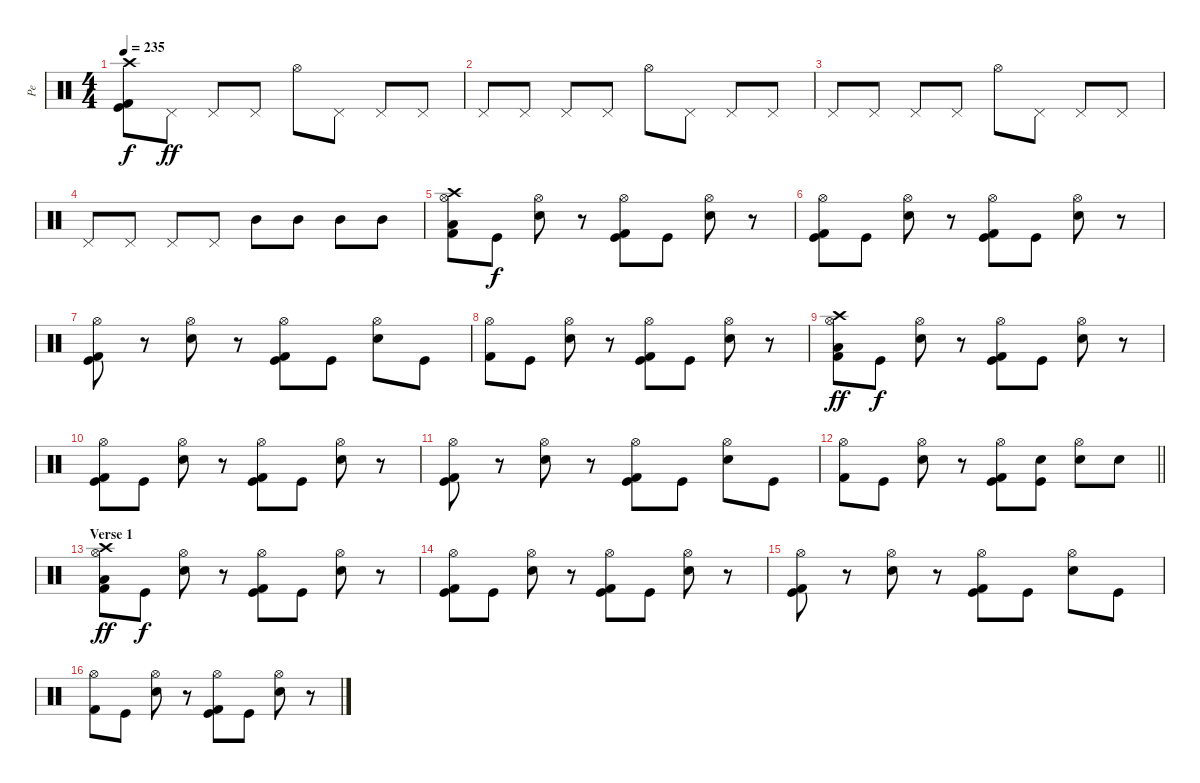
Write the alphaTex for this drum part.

\track ("Pe" "Pe") {instrument percussion}
\staff {score}
\articulation defaults
\ts (4 4)
\tempo 235
\clef neutral
\ks c
("Crash high (hit)" "Kick (hit)" "Kick (hit) 2").8{dy f} "Pedal Hi-Hat (hit)".8{dy ff} "Pedal Hi-Hat (hit)".8 "Pedal Hi-Hat (hit)".8 "Hi-Hat (open)".8 "Pedal Hi-Hat (hit)".8 "Pedal Hi-Hat (hit)".8 "Pedal Hi-Hat (hit)".8 |
"Pedal Hi-Hat (hit)".8 "Pedal Hi-Hat (hit)".8 "Pedal Hi-Hat (hit)".8 "Pedal Hi-Hat (hit)".8 "Hi-Hat (open)".8 "Pedal Hi-Hat (hit)".8 "Pedal Hi-Hat (hit)".8 "Pedal Hi-Hat (hit)".8 |
"Pedal Hi-Hat (hit)".8 "Pedal Hi-Hat (hit)".8 "Pedal Hi-Hat (hit)".8 "Pedal Hi-Hat (hit)".8 "Hi-Hat (open)".8 "Pedal Hi-Hat (hit)".8 "Pedal Hi-Hat (hit)".8 "Pedal Hi-Hat (hit)".8 |
"Pedal Hi-Hat (hit)".8 "Pedal Hi-Hat (hit)".8 "Pedal Hi-Hat (hit)".8 "Pedal Hi-Hat (hit)".8 "Mid Tom (hit)".8 "Mid Tom (hit)".8 "Mid Tom (hit)".8 "Mid Tom (hit)".8 |
("Low Tom (hit)" "Hi-Hat (open)" "Kick (hit) 2" "Crash high (hit)").8 "Kick (hit)".8{dy f} ("Electric Snare (hit)" "Hi-Hat (open)").8 r.8 ("Kick (hit)" "Hi-Hat (open)" "Kick (hit) 2").8 "Kick (hit)".8 ("Electric Snare (hit)" "Hi-Hat (open)").8 r.8 |
("Kick (hit)" "Hi-Hat (open)" "Kick (hit) 2").8 "Kick (hit)".8 ("Electric Snare (hit)" "Hi-Hat (open)").8 r.8 ("Kick (hit)" "Hi-Hat (open)" "Kick (hit) 2").8 "Kick (hit)".8 ("Electric Snare (hit)" "Hi-Hat (open)").8 r.8 |
("Kick (hit)" "Hi-Hat (open)" "Kick (hit) 2").8 r.8 ("Electric Snare (hit)" "Hi-Hat (open)").8 r.8 ("Kick (hit)" "Hi-Hat (open)" "Kick (hit) 2").8 "Kick (hit)".8 ("Electric Snare (hit)" "Hi-Hat (open)").8 "Kick (hit)".8 |
("Hi-Hat (open)" "Kick (hit) 2").8 "Kick (hit)".8 ("Electric Snare (hit)" "Hi-Hat (open)").8 r.8 ("Kick (hit)" "Hi-Hat (open)" "Kick (hit) 2").8 "Kick (hit)".8 ("Electric Snare (hit)" "Hi-Hat (open)").8 r.8 |
("Low Tom (hit)" "Hi-Hat (open)" "Kick (hit) 2" "Crash high (hit)").8{dy ff} "Kick (hit)".8{dy f} ("Electric Snare (hit)" "Hi-Hat (open)").8 r.8 ("Kick (hit)" "Hi-Hat (open)" "Kick (hit) 2").8 "Kick (hit)".8 ("Electric Snare (hit)" "Hi-Hat (open)").8 r.8 |
("Kick (hit)" "Hi-Hat (open)" "Kick (hit) 2").8 "Kick (hit)".8 ("Electric Snare (hit)" "Hi-Hat (open)").8 r.8 ("Kick (hit)" "Hi-Hat (open)" "Kick (hit) 2").8 "Kick (hit)".8 ("Electric Snare (hit)" "Hi-Hat (open)").8 r.8 |
("Kick (hit)" "Hi-Hat (open)" "Kick (hit) 2").8 r.8 ("Electric Snare (hit)" "Hi-Hat (open)").8 r.8 ("Kick (hit)" "Hi-Hat (open)" "Kick (hit) 2").8 "Kick (hit)".8 ("Electric Snare (hit)" "Hi-Hat (open)").8 "Kick (hit)".8 |
\barLineRight lightlight
("Hi-Hat (open)" "Kick (hit) 2").8 "Kick (hit)".8 ("Electric Snare (hit)" "Hi-Hat (open)").8 r.8 ("Kick (hit)" "Hi-Hat (open)" "Kick (hit) 2").8 ("Electric Snare (hit)" "Kick (hit)").8 ("Electric Snare (hit)" "Hi-Hat (open)").8 "Electric Snare (hit)".8 |
\section ("" "Verse 1")
("Low Tom (hit)" "Hi-Hat (open)" "Kick (hit) 2" "Crash high (hit)").8{dy ff} "Kick (hit)".8{dy f} ("Electric Snare (hit)" "Hi-Hat (open)").8 r.8 ("Kick (hit)" "Hi-Hat (open)" "Kick (hit) 2").8 "Kick (hit)".8 ("Electric Snare (hit)" "Hi-Hat (open)").8 r.8 |
("Kick (hit)" "Hi-Hat (open)" "Kick (hit) 2").8 "Kick (hit)".8 ("Electric Snare (hit)" "Hi-Hat (open)").8 r.8 ("Kick (hit)" "Hi-Hat (open)" "Kick (hit) 2").8 "Kick (hit)".8 ("Electric Snare (hit)" "Hi-Hat (open)").8 r.8 |
("Kick (hit)" "Hi-Hat (open)" "Kick (hit) 2").8 r.8 ("Electric Snare (hit)" "Hi-Hat (open)").8 r.8 ("Kick (hit)" "Hi-Hat (open)" "Kick (hit) 2").8 "Kick (hit)".8 ("Electric Snare (hit)" "Hi-Hat (open)").8 "Kick (hit)".8 |
("Hi-Hat (open)" "Kick (hit) 2").8 "Kick (hit)".8 ("Electric Snare (hit)" "Hi-Hat (open)").8 r.8 ("Kick (hit)" "Hi-Hat (open)" "Kick (hit) 2").8 "Kick (hit)".8 ("Electric Snare (hit)" "Hi-Hat (open)").8 r.8
